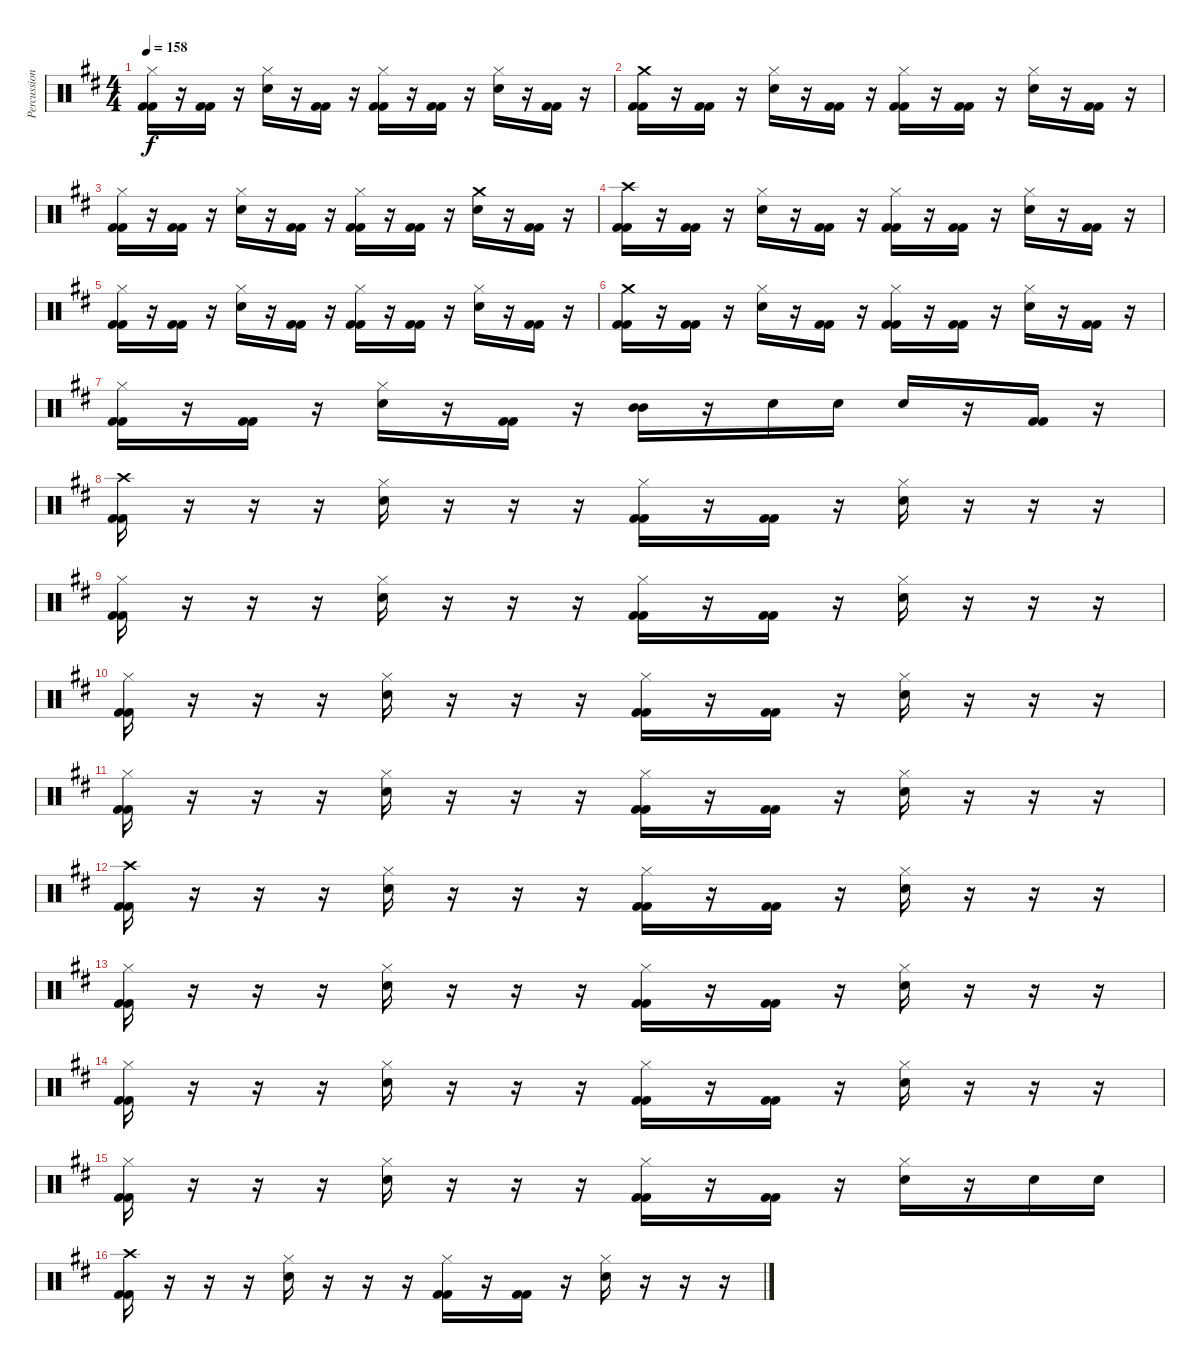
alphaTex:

\track ("Percussion" "Percussion") {instrument percussion}
\staff {score}
\articulation defaults
\ts (4 4)
\tempo 158
\clef neutral
\ks d
("Hi-Hat (closed)" "Kick (hit) 2" "Kick (hit) 2").16{dy f} r.16 ("Kick (hit) 2" "Kick (hit) 2").16 r.16 ("Hi-Hat (closed)" "Electric Snare (hit)").16 r.16 ("Kick (hit) 2" "Kick (hit) 2").16 r.16 ("Hi-Hat (closed)" "Kick (hit) 2" "Kick (hit) 2").16 r.16 ("Kick (hit) 2" "Kick (hit) 2").16 r.16 ("Hi-Hat (closed)" "Electric Snare (hit)").16 r.16 ("Kick (hit) 2" "Kick (hit) 2").16 r.16 |
("Crash medium (hit)" "Kick (hit) 2" "Kick (hit) 2").16 r.16 ("Kick (hit) 2" "Kick (hit) 2").16 r.16 ("Hi-Hat (closed)" "Electric Snare (hit)").16 r.16 ("Kick (hit) 2" "Kick (hit) 2").16 r.16 ("Hi-Hat (closed)" "Kick (hit) 2" "Kick (hit) 2").16 r.16 ("Kick (hit) 2" "Kick (hit) 2").16 r.16 ("Hi-Hat (closed)" "Electric Snare (hit)").16 r.16 ("Kick (hit) 2" "Kick (hit) 2").16 r.16 |
("Hi-Hat (closed)" "Kick (hit) 2" "Kick (hit) 2").16 r.16 ("Kick (hit) 2" "Kick (hit) 2").16 r.16 ("Hi-Hat (closed)" "Electric Snare (hit)").16 r.16 ("Kick (hit) 2" "Kick (hit) 2").16 r.16 ("Hi-Hat (closed)" "Kick (hit) 2" "Kick (hit) 2").16 r.16 ("Kick (hit) 2" "Kick (hit) 2").16 r.16 ("Crash medium (hit)" "Electric Snare (hit)").16 r.16 ("Kick (hit) 2" "Kick (hit) 2").16 r.16 |
("Crash high (hit)" "Kick (hit) 2" "Kick (hit) 2").16 r.16 ("Kick (hit) 2" "Kick (hit) 2").16 r.16 ("Hi-Hat (closed)" "Electric Snare (hit)").16 r.16 ("Kick (hit) 2" "Kick (hit) 2").16 r.16 ("Hi-Hat (closed)" "Kick (hit) 2" "Kick (hit) 2").16 r.16 ("Kick (hit) 2" "Kick (hit) 2").16 r.16 ("Hi-Hat (closed)" "Electric Snare (hit)").16 r.16 ("Kick (hit) 2" "Kick (hit) 2").16 r.16 |
("Hi-Hat (closed)" "Kick (hit) 2" "Kick (hit) 2").16 r.16 ("Kick (hit) 2" "Kick (hit) 2").16 r.16 ("Hi-Hat (closed)" "Electric Snare (hit)").16 r.16 ("Kick (hit) 2" "Kick (hit) 2").16 r.16 ("Hi-Hat (closed)" "Kick (hit) 2" "Kick (hit) 2").16 r.16 ("Kick (hit) 2" "Kick (hit) 2").16 r.16 ("Hi-Hat (closed)" "Electric Snare (hit)").16 r.16 ("Kick (hit) 2" "Kick (hit) 2").16 r.16 |
("Crash medium (hit)" "Kick (hit) 2" "Kick (hit) 2").16 r.16 ("Kick (hit) 2" "Kick (hit) 2").16 r.16 ("Hi-Hat (closed)" "Electric Snare (hit)").16 r.16 ("Kick (hit) 2" "Kick (hit) 2").16 r.16 ("Hi-Hat (closed)" "Kick (hit) 2" "Kick (hit) 2").16 r.16 ("Kick (hit) 2" "Kick (hit) 2").16 r.16 ("Hi-Hat (closed)" "Electric Snare (hit)").16 r.16 ("Kick (hit) 2" "Kick (hit) 2").16 r.16 |
("Hi-Hat (closed)" "Kick (hit) 2" "Kick (hit) 2").16 r.16 ("Kick (hit) 2" "Kick (hit) 2").16 r.16 ("Hi-Hat (closed)" "Electric Snare (hit)").16 r.16 ("Kick (hit) 2" "Kick (hit) 2").16 r.16 ("Mid Tom (hit)" "Mid Tom (hit)").16 r.16 "Electric Snare (hit)".16 "Electric Snare (hit)".16 "Electric Snare (hit)".16 r.16 ("Kick (hit) 2" "Kick (hit) 2").16 r.16 |
("Crash high (hit)" "Kick (hit) 2" "Kick (hit) 2").16 r.16 r.16 r.16 ("Hi-Hat (closed)" "Electric Snare (hit)").16 r.16 r.16 r.16 ("Hi-Hat (closed)" "Kick (hit) 2" "Kick (hit) 2").16 r.16 ("Kick (hit) 2" "Kick (hit) 2").16 r.16 ("Hi-Hat (closed)" "Electric Snare (hit)").16 r.16 r.16 r.16 |
("Hi-Hat (closed)" "Kick (hit) 2" "Kick (hit) 2").16 r.16 r.16 r.16 ("Hi-Hat (closed)" "Electric Snare (hit)").16 r.16 r.16 r.16 ("Hi-Hat (closed)" "Kick (hit) 2" "Kick (hit) 2").16 r.16 ("Kick (hit) 2" "Kick (hit) 2").16 r.16 ("Hi-Hat (closed)" "Electric Snare (hit)").16 r.16 r.16 r.16 |
("Hi-Hat (closed)" "Kick (hit) 2" "Kick (hit) 2").16 r.16 r.16 r.16 ("Hi-Hat (closed)" "Electric Snare (hit)").16 r.16 r.16 r.16 ("Hi-Hat (closed)" "Kick (hit) 2" "Kick (hit) 2").16 r.16 ("Kick (hit) 2" "Kick (hit) 2").16 r.16 ("Hi-Hat (closed)" "Electric Snare (hit)").16 r.16 r.16 r.16 |
("Hi-Hat (closed)" "Kick (hit) 2" "Kick (hit) 2").16 r.16 r.16 r.16 ("Hi-Hat (closed)" "Electric Snare (hit)").16 r.16 r.16 r.16 ("Hi-Hat (closed)" "Kick (hit) 2" "Kick (hit) 2").16 r.16 ("Kick (hit) 2" "Kick (hit) 2").16 r.16 ("Hi-Hat (closed)" "Electric Snare (hit)").16 r.16 r.16 r.16 |
("Crash high (hit)" "Kick (hit) 2" "Kick (hit) 2").16 r.16 r.16 r.16 ("Hi-Hat (closed)" "Electric Snare (hit)").16 r.16 r.16 r.16 ("Hi-Hat (closed)" "Kick (hit) 2" "Kick (hit) 2").16 r.16 ("Kick (hit) 2" "Kick (hit) 2").16 r.16 ("Hi-Hat (closed)" "Electric Snare (hit)").16 r.16 r.16 r.16 |
("Hi-Hat (closed)" "Kick (hit) 2" "Kick (hit) 2").16 r.16 r.16 r.16 ("Hi-Hat (closed)" "Electric Snare (hit)").16 r.16 r.16 r.16 ("Hi-Hat (closed)" "Kick (hit) 2" "Kick (hit) 2").16 r.16 ("Kick (hit) 2" "Kick (hit) 2").16 r.16 ("Hi-Hat (closed)" "Electric Snare (hit)").16 r.16 r.16 r.16 |
("Hi-Hat (closed)" "Kick (hit) 2" "Kick (hit) 2").16 r.16 r.16 r.16 ("Hi-Hat (closed)" "Electric Snare (hit)").16 r.16 r.16 r.16 ("Hi-Hat (closed)" "Kick (hit) 2" "Kick (hit) 2").16 r.16 ("Kick (hit) 2" "Kick (hit) 2").16 r.16 ("Hi-Hat (closed)" "Electric Snare (hit)").16 r.16 r.16 r.16 |
("Hi-Hat (closed)" "Kick (hit) 2" "Kick (hit) 2").16 r.16 r.16 r.16 ("Hi-Hat (closed)" "Electric Snare (hit)").16 r.16 r.16 r.16 ("Hi-Hat (closed)" "Kick (hit) 2" "Kick (hit) 2").16 r.16 ("Kick (hit) 2" "Kick (hit) 2").16 r.16 ("Hi-Hat (closed)" "Electric Snare (hit)").16 r.16 "Electric Snare (hit)".16 "Electric Snare (hit)".16 |
("Crash high (hit)" "Kick (hit) 2" "Kick (hit) 2").16 r.16 r.16 r.16 ("Hi-Hat (closed)" "Electric Snare (hit)").16 r.16 r.16 r.16 ("Hi-Hat (closed)" "Kick (hit) 2" "Kick (hit) 2").16 r.16 ("Kick (hit) 2" "Kick (hit) 2").16 r.16 ("Hi-Hat (closed)" "Electric Snare (hit)").16 r.16 r.16 r.16
